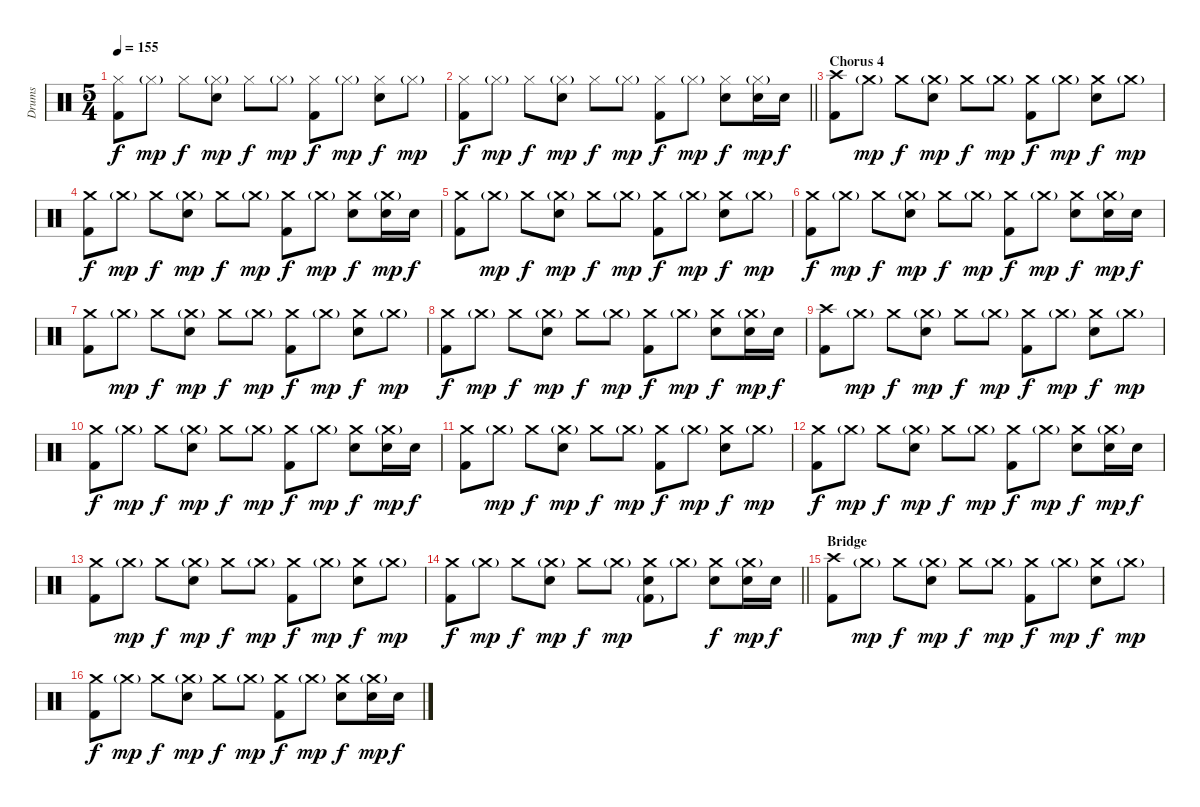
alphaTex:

\track ("Drums" "Drums") {instrument percussion}
\staff {score}
\articulation defaults
\ts (5 4)
\tempo 155
\clef neutral
\ks c
("Hi-Hat (closed)" "Kick (hit) 2").8{dy f} "Hi-Hat (closed)"{g}.8{dy mp} "Hi-Hat (closed)".8{dy f} ("Hi-Hat (closed)"{g} "Electric Snare (hit)").8{dy mp} "Hi-Hat (closed)".8{dy f} "Hi-Hat (closed)"{g}.8{dy mp} ("Hi-Hat (closed)" "Kick (hit) 2").8{dy f} "Hi-Hat (closed)"{g}.8{dy mp} ("Hi-Hat (closed)" "Electric Snare (hit)").8{dy f} "Hi-Hat (closed)"{g}.8{dy mp} |
\barLineRight lightlight
("Hi-Hat (closed)" "Kick (hit) 2").8{dy f} "Hi-Hat (closed)"{g}.8{dy mp} "Hi-Hat (closed)".8{dy f} ("Hi-Hat (closed)"{g} "Electric Snare (hit)").8{dy mp} "Hi-Hat (closed)".8{dy f} "Hi-Hat (closed)"{g}.8{dy mp} ("Hi-Hat (closed)" "Kick (hit) 2").8{dy f} "Hi-Hat (closed)"{g}.8{dy mp} ("Hi-Hat (closed)" "Electric Snare (hit)").8{dy f} ("Hi-Hat (closed)"{g} "Electric Snare (hit)").16{dy mp} "Electric Snare (hit)".16{dy f} |
\section ("" "Chorus 4")
("Crash high (hit)" "Kick (hit) 2").8 "Crash medium (hit)"{g}.8{dy mp} "Crash medium (hit)".8{dy f} ("Crash medium (hit)"{g} "Electric Snare (hit)").8{dy mp} "Crash medium (hit)".8{dy f} "Crash medium (hit)"{g}.8{dy mp} ("Crash medium (hit)" "Kick (hit) 2").8{dy f} "Crash medium (hit)"{g}.8{dy mp} ("Crash medium (hit)" "Electric Snare (hit)").8{dy f} "Crash medium (hit)"{g}.8{dy mp} |
("Crash medium (hit)" "Kick (hit) 2").8{dy f} "Crash medium (hit)"{g}.8{dy mp} "Crash medium (hit)".8{dy f} ("Crash medium (hit)"{g} "Electric Snare (hit)").8{dy mp} "Crash medium (hit)".8{dy f} "Crash medium (hit)"{g}.8{dy mp} ("Crash medium (hit)" "Kick (hit) 2").8{dy f} "Crash medium (hit)"{g}.8{dy mp} ("Crash medium (hit)" "Electric Snare (hit)").8{dy f} ("Crash medium (hit)"{g} "Electric Snare (hit)").16{dy mp} "Electric Snare (hit)".16{dy f} |
("Crash medium (hit)" "Kick (hit) 2").8 "Crash medium (hit)"{g}.8{dy mp} "Crash medium (hit)".8{dy f} ("Crash medium (hit)"{g} "Electric Snare (hit)").8{dy mp} "Crash medium (hit)".8{dy f} "Crash medium (hit)"{g}.8{dy mp} ("Crash medium (hit)" "Kick (hit) 2").8{dy f} "Crash medium (hit)"{g}.8{dy mp} ("Crash medium (hit)" "Electric Snare (hit)").8{dy f} "Crash medium (hit)"{g}.8{dy mp} |
("Crash medium (hit)" "Kick (hit) 2").8{dy f} "Crash medium (hit)"{g}.8{dy mp} "Crash medium (hit)".8{dy f} ("Crash medium (hit)"{g} "Electric Snare (hit)").8{dy mp} "Crash medium (hit)".8{dy f} "Crash medium (hit)"{g}.8{dy mp} ("Crash medium (hit)" "Kick (hit) 2").8{dy f} "Crash medium (hit)"{g}.8{dy mp} ("Crash medium (hit)" "Electric Snare (hit)").8{dy f} ("Crash medium (hit)"{g} "Electric Snare (hit)").16{dy mp} "Electric Snare (hit)".16{dy f} |
("Crash medium (hit)" "Kick (hit) 2").8 "Crash medium (hit)"{g}.8{dy mp} "Crash medium (hit)".8{dy f} ("Crash medium (hit)"{g} "Electric Snare (hit)").8{dy mp} "Crash medium (hit)".8{dy f} "Crash medium (hit)"{g}.8{dy mp} ("Crash medium (hit)" "Kick (hit) 2").8{dy f} "Crash medium (hit)"{g}.8{dy mp} ("Crash medium (hit)" "Electric Snare (hit)").8{dy f} "Crash medium (hit)"{g}.8{dy mp} |
("Crash medium (hit)" "Kick (hit) 2").8{dy f} "Crash medium (hit)"{g}.8{dy mp} "Crash medium (hit)".8{dy f} ("Crash medium (hit)"{g} "Electric Snare (hit)").8{dy mp} "Crash medium (hit)".8{dy f} "Crash medium (hit)"{g}.8{dy mp} ("Crash medium (hit)" "Kick (hit) 2").8{dy f} "Crash medium (hit)"{g}.8{dy mp} ("Crash medium (hit)" "Electric Snare (hit)").8{dy f} ("Crash medium (hit)"{g} "Electric Snare (hit)").16{dy mp} "Electric Snare (hit)".16{dy f} |
("Crash high (hit)" "Kick (hit) 2").8 "Crash medium (hit)"{g}.8{dy mp} "Crash medium (hit)".8{dy f} ("Crash medium (hit)"{g} "Electric Snare (hit)").8{dy mp} "Crash medium (hit)".8{dy f} "Crash medium (hit)"{g}.8{dy mp} ("Crash medium (hit)" "Kick (hit) 2").8{dy f} "Crash medium (hit)"{g}.8{dy mp} ("Crash medium (hit)" "Electric Snare (hit)").8{dy f} "Crash medium (hit)"{g}.8{dy mp} |
("Crash medium (hit)" "Kick (hit) 2").8{dy f} "Crash medium (hit)"{g}.8{dy mp} "Crash medium (hit)".8{dy f} ("Crash medium (hit)"{g} "Electric Snare (hit)").8{dy mp} "Crash medium (hit)".8{dy f} "Crash medium (hit)"{g}.8{dy mp} ("Crash medium (hit)" "Kick (hit) 2").8{dy f} "Crash medium (hit)"{g}.8{dy mp} ("Crash medium (hit)" "Electric Snare (hit)").8{dy f} ("Crash medium (hit)"{g} "Electric Snare (hit)").16{dy mp} "Electric Snare (hit)".16{dy f} |
("Crash medium (hit)" "Kick (hit) 2").8 "Crash medium (hit)"{g}.8{dy mp} "Crash medium (hit)".8{dy f} ("Crash medium (hit)"{g} "Electric Snare (hit)").8{dy mp} "Crash medium (hit)".8{dy f} "Crash medium (hit)"{g}.8{dy mp} ("Crash medium (hit)" "Kick (hit) 2").8{dy f} "Crash medium (hit)"{g}.8{dy mp} ("Crash medium (hit)" "Electric Snare (hit)").8{dy f} "Crash medium (hit)"{g}.8{dy mp} |
("Crash medium (hit)" "Kick (hit) 2").8{dy f} "Crash medium (hit)"{g}.8{dy mp} "Crash medium (hit)".8{dy f} ("Crash medium (hit)"{g} "Electric Snare (hit)").8{dy mp} "Crash medium (hit)".8{dy f} "Crash medium (hit)"{g}.8{dy mp} ("Crash medium (hit)" "Kick (hit) 2").8{dy f} "Crash medium (hit)"{g}.8{dy mp} ("Crash medium (hit)" "Electric Snare (hit)").8{dy f} ("Crash medium (hit)"{g} "Electric Snare (hit)").16{dy mp} "Electric Snare (hit)".16{dy f} |
("Crash medium (hit)" "Kick (hit) 2").8 "Crash medium (hit)"{g}.8{dy mp} "Crash medium (hit)".8{dy f} ("Crash medium (hit)"{g} "Electric Snare (hit)").8{dy mp} "Crash medium (hit)".8{dy f} "Crash medium (hit)"{g}.8{dy mp} ("Crash medium (hit)" "Kick (hit) 2").8{dy f} "Crash medium (hit)"{g}.8{dy mp} ("Crash medium (hit)" "Electric Snare (hit)").8{dy f} "Crash medium (hit)"{g}.8{dy mp} |
\barLineRight lightlight
("Crash medium (hit)" "Kick (hit) 2").8{dy f} "Crash medium (hit)"{g}.8{dy mp} "Crash medium (hit)".8{dy f} ("Crash medium (hit)"{g} "Electric Snare (hit)").8{dy mp} "Crash medium (hit)".8{dy f} "Crash medium (hit)"{g}.8{dy mp} ("Crash medium (hit)" "Electric Snare (hit)" "Kick (hit) 2"{g}).8 "Crash medium (hit)"{g}.8 ("Crash medium (hit)" "Electric Snare (hit)").8{dy f} ("Crash medium (hit)"{g} "Electric Snare (hit)").16{dy mp} "Electric Snare (hit)".16{dy f} |
\section ("" "Bridge")
("Crash high (hit)" "Kick (hit) 2").8 "Crash medium (hit)"{g}.8{dy mp} "Crash medium (hit)".8{dy f} ("Crash medium (hit)"{g} "Electric Snare (hit)").8{dy mp} "Crash medium (hit)".8{dy f} "Crash medium (hit)"{g}.8{dy mp} ("Crash medium (hit)" "Kick (hit) 2").8{dy f} "Crash medium (hit)"{g}.8{dy mp} ("Crash medium (hit)" "Electric Snare (hit)").8{dy f} "Crash medium (hit)"{g}.8{dy mp} |
("Crash medium (hit)" "Kick (hit) 2").8{dy f} "Crash medium (hit)"{g}.8{dy mp} "Crash medium (hit)".8{dy f} ("Crash medium (hit)"{g} "Electric Snare (hit)").8{dy mp} "Crash medium (hit)".8{dy f} "Crash medium (hit)"{g}.8{dy mp} ("Crash medium (hit)" "Kick (hit) 2").8{dy f} "Crash medium (hit)"{g}.8{dy mp} ("Crash medium (hit)" "Electric Snare (hit)").8{dy f} ("Crash medium (hit)"{g} "Electric Snare (hit)").16{dy mp} "Electric Snare (hit)".16{dy f}
